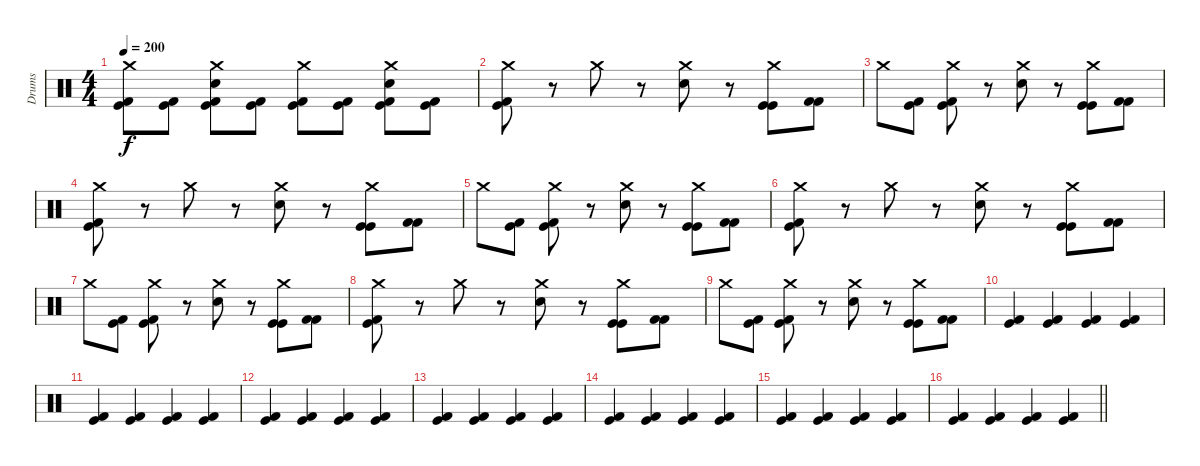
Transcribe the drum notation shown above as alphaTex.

\track ("Drums" "Drums") {instrument percussion}
\staff {score}
\articulation defaults
\ts (4 4)
\tempo 200
\clef neutral
\ks c
("Crash medium (hit)" "Kick (hit) 2" "Kick (hit)").8{dy f} ("Kick (hit) 2" "Kick (hit)").8 ("Crash medium (hit)" "Electric Snare (hit)" "Kick (hit) 2" "Kick (hit)").8 ("Kick (hit) 2" "Kick (hit)").8 ("Crash medium (hit)" "Kick (hit) 2" "Kick (hit)").8 ("Kick (hit) 2" "Kick (hit)").8 ("Crash medium (hit)" "Electric Snare (hit)" "Kick (hit) 2" "Kick (hit)").8 ("Kick (hit) 2" "Kick (hit)").8 |
("Crash medium (hit)" "Kick (hit) 2" "Kick (hit)").8 r.8 "Crash medium (hit)".8 r.8 ("Crash medium (hit)" "Electric Snare (hit)").8 r.8 ("Crash medium (hit)" "Kick (hit)" "Kick (hit)").8 ("Kick (hit) 2" "Kick (hit) 2").8 |
"Crash medium (hit)".8 ("Kick (hit) 2" "Kick (hit)").8 ("Crash medium (hit)" "Kick (hit) 2" "Kick (hit)").8 r.8 ("Crash medium (hit)" "Electric Snare (hit)").8 r.8 ("Crash medium (hit)" "Kick (hit)" "Kick (hit)").8 ("Kick (hit) 2" "Kick (hit) 2").8 |
("Crash medium (hit)" "Kick (hit) 2" "Kick (hit)").8 r.8 "Crash medium (hit)".8 r.8 ("Crash medium (hit)" "Electric Snare (hit)").8 r.8 ("Crash medium (hit)" "Kick (hit)" "Kick (hit)").8 ("Kick (hit) 2" "Kick (hit) 2").8 |
"Crash medium (hit)".8 ("Kick (hit) 2" "Kick (hit)").8 ("Crash medium (hit)" "Kick (hit) 2" "Kick (hit)").8 r.8 ("Crash medium (hit)" "Electric Snare (hit)").8 r.8 ("Crash medium (hit)" "Kick (hit)" "Kick (hit)").8 ("Kick (hit) 2" "Kick (hit) 2").8 |
("Crash medium (hit)" "Kick (hit) 2" "Kick (hit)").8 r.8 "Crash medium (hit)".8 r.8 ("Crash medium (hit)" "Electric Snare (hit)").8 r.8 ("Crash medium (hit)" "Kick (hit)" "Kick (hit)").8 ("Kick (hit) 2" "Kick (hit) 2").8 |
"Crash medium (hit)".8 ("Kick (hit) 2" "Kick (hit)").8 ("Crash medium (hit)" "Kick (hit) 2" "Kick (hit)").8 r.8 ("Crash medium (hit)" "Electric Snare (hit)").8 r.8 ("Crash medium (hit)" "Kick (hit)" "Kick (hit)").8 ("Kick (hit) 2" "Kick (hit) 2").8 |
("Crash medium (hit)" "Kick (hit) 2" "Kick (hit)").8 r.8 "Crash medium (hit)".8 r.8 ("Crash medium (hit)" "Electric Snare (hit)").8 r.8 ("Crash medium (hit)" "Kick (hit)" "Kick (hit)").8 ("Kick (hit) 2" "Kick (hit) 2").8 |
"Crash medium (hit)".8 ("Kick (hit) 2" "Kick (hit)").8 ("Crash medium (hit)" "Kick (hit) 2" "Kick (hit)").8 r.8 ("Crash medium (hit)" "Electric Snare (hit)").8 r.8 ("Crash medium (hit)" "Kick (hit)" "Kick (hit)").8 ("Kick (hit) 2" "Kick (hit) 2").8 |
("Kick (hit) 2" "Kick (hit)").4 ("Kick (hit) 2" "Kick (hit)").4 ("Kick (hit) 2" "Kick (hit)").4 ("Kick (hit) 2" "Kick (hit)").4 |
("Kick (hit) 2" "Kick (hit)").4 ("Kick (hit) 2" "Kick (hit)").4 ("Kick (hit) 2" "Kick (hit)").4 ("Kick (hit) 2" "Kick (hit)").4 |
("Kick (hit) 2" "Kick (hit)").4 ("Kick (hit) 2" "Kick (hit)").4 ("Kick (hit) 2" "Kick (hit)").4 ("Kick (hit) 2" "Kick (hit)").4 |
("Kick (hit) 2" "Kick (hit)").4 ("Kick (hit) 2" "Kick (hit)").4 ("Kick (hit) 2" "Kick (hit)").4 ("Kick (hit) 2" "Kick (hit)").4 |
("Kick (hit) 2" "Kick (hit)").4 ("Kick (hit) 2" "Kick (hit)").4 ("Kick (hit) 2" "Kick (hit)").4 ("Kick (hit) 2" "Kick (hit)").4 |
("Kick (hit) 2" "Kick (hit)").4 ("Kick (hit) 2" "Kick (hit)").4 ("Kick (hit) 2" "Kick (hit)").4 ("Kick (hit) 2" "Kick (hit)").4 |
\barLineRight lightlight
("Kick (hit) 2" "Kick (hit)").4 ("Kick (hit) 2" "Kick (hit)").4 ("Kick (hit) 2" "Kick (hit)").4 ("Kick (hit) 2" "Kick (hit)").4
